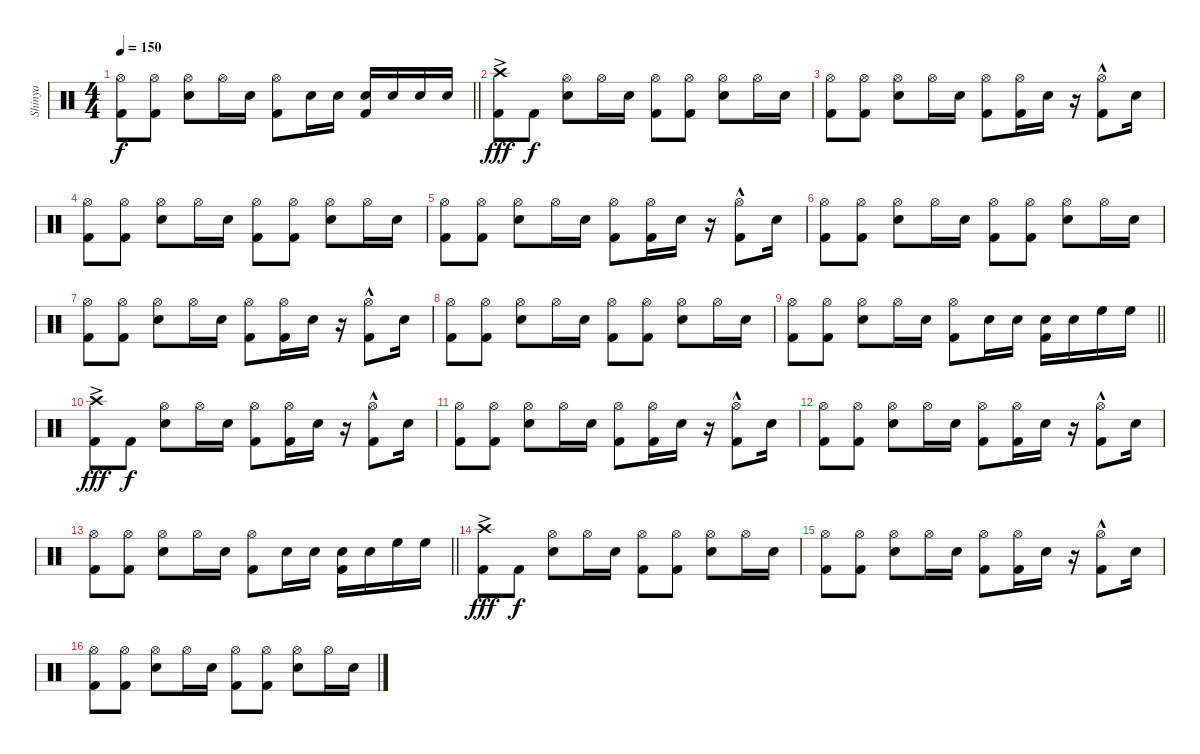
\track ("Shinya" "Shinya") {instrument percussion}
\staff {score}
\articulation defaults
\ts (4 4)
\tempo 150
\clef neutral
\barLineRight lightlight
\ks c
("Hi-Hat (open)" "Kick (hit) 2").8{dy f} ("Hi-Hat (open)" "Kick (hit) 2").8 ("Hi-Hat (open)" "Snare (hit) 2").8 "Hi-Hat (open)".16 "Snare (hit) 2".16 ("Hi-Hat (open)" "Kick (hit) 2").8 "Snare (hit) 2".16 "Snare (hit) 2".16 ("Snare (hit) 2" "Kick (hit) 2").16 "Snare (hit) 2".16 "Snare (hit) 2".16 "Snare (hit) 2".16 |
("Crash high (hit)"{ac} "Kick (hit) 2").8{dy fff} "Kick (hit) 2".8{dy f} ("Hi-Hat (open)" "Snare (hit) 2").8 "Hi-Hat (open)".16 "Snare (hit) 2".16 ("Hi-Hat (open)" "Kick (hit) 2").8 ("Hi-Hat (open)" "Kick (hit) 2").8 ("Hi-Hat (open)" "Snare (hit) 2").8 "Hi-Hat (open)".16 "Snare (hit) 2".16 |
("Hi-Hat (open)" "Kick (hit) 2").8 ("Hi-Hat (open)" "Kick (hit) 2").8 ("Hi-Hat (open)" "Snare (hit) 2").8 "Hi-Hat (open)".16 "Snare (hit) 2".16 ("Hi-Hat (open)" "Kick (hit) 2").8 ("Hi-Hat (open)" "Kick (hit) 2").16 "Snare (hit) 2".16 r.16 ("Hi-Hat (open)" "Kick (hit) 2"{hac}).8 "Snare (hit) 2".16 |
("Hi-Hat (open)" "Kick (hit) 2").8 ("Hi-Hat (open)" "Kick (hit) 2").8 ("Hi-Hat (open)" "Snare (hit) 2").8 "Hi-Hat (open)".16 "Snare (hit) 2".16 ("Hi-Hat (open)" "Kick (hit) 2").8 ("Hi-Hat (open)" "Kick (hit) 2").8 ("Hi-Hat (open)" "Snare (hit) 2").8 "Hi-Hat (open)".16 "Snare (hit) 2".16 |
("Hi-Hat (open)" "Kick (hit) 2").8 ("Hi-Hat (open)" "Kick (hit) 2").8 ("Hi-Hat (open)" "Snare (hit) 2").8 "Hi-Hat (open)".16 "Snare (hit) 2".16 ("Hi-Hat (open)" "Kick (hit) 2").8 ("Hi-Hat (open)" "Kick (hit) 2").16 "Snare (hit) 2".16 r.16 ("Hi-Hat (open)" "Kick (hit) 2"{hac}).8 "Snare (hit) 2".16 |
("Hi-Hat (open)" "Kick (hit) 2").8 ("Hi-Hat (open)" "Kick (hit) 2").8 ("Hi-Hat (open)" "Snare (hit) 2").8 "Hi-Hat (open)".16 "Snare (hit) 2".16 ("Hi-Hat (open)" "Kick (hit) 2").8 ("Hi-Hat (open)" "Kick (hit) 2").8 ("Hi-Hat (open)" "Snare (hit) 2").8 "Hi-Hat (open)".16 "Snare (hit) 2".16 |
("Hi-Hat (open)" "Kick (hit) 2").8 ("Hi-Hat (open)" "Kick (hit) 2").8 ("Hi-Hat (open)" "Snare (hit) 2").8 "Hi-Hat (open)".16 "Snare (hit) 2".16 ("Hi-Hat (open)" "Kick (hit) 2").8 ("Hi-Hat (open)" "Kick (hit) 2").16 "Snare (hit) 2".16 r.16 ("Hi-Hat (open)" "Kick (hit) 2"{hac}).8 "Snare (hit) 2".16 |
("Hi-Hat (open)" "Kick (hit) 2").8 ("Hi-Hat (open)" "Kick (hit) 2").8 ("Hi-Hat (open)" "Snare (hit) 2").8 "Hi-Hat (open)".16 "Snare (hit) 2".16 ("Hi-Hat (open)" "Kick (hit) 2").8 ("Hi-Hat (open)" "Kick (hit) 2").8 ("Hi-Hat (open)" "Snare (hit) 2").8 "Hi-Hat (open)".16 "Snare (hit) 2".16 |
\barLineRight lightlight
("Hi-Hat (open)" "Kick (hit) 2").8 ("Hi-Hat (open)" "Kick (hit) 2").8 ("Hi-Hat (open)" "Snare (hit) 2").8 "Hi-Hat (open)".16 "Snare (hit) 2".16 ("Hi-Hat (open)" "Kick (hit) 2").8 "Snare (hit) 2".16 "Snare (hit) 2".16 ("Snare (hit) 2" "Kick (hit) 2").16 "Snare (hit) 2".16 "High Floor Tom (hit)".16 "High Floor Tom (hit)".16 |
("Crash high (hit)"{ac} "Kick (hit) 2").8{dy fff} "Kick (hit) 2".8{dy f} ("Hi-Hat (open)" "Snare (hit) 2").8 "Hi-Hat (open)".16 "Snare (hit) 2".16 ("Hi-Hat (open)" "Kick (hit) 2").8 ("Hi-Hat (open)" "Kick (hit) 2").16 "Snare (hit) 2".16 r.16 ("Hi-Hat (open)" "Kick (hit) 2"{hac}).8 "Snare (hit) 2".16 |
("Hi-Hat (open)" "Kick (hit) 2").8 ("Hi-Hat (open)" "Kick (hit) 2").8 ("Hi-Hat (open)" "Snare (hit) 2").8 "Hi-Hat (open)".16 "Snare (hit) 2".16 ("Hi-Hat (open)" "Kick (hit) 2").8 ("Hi-Hat (open)" "Kick (hit) 2").16 "Snare (hit) 2".16 r.16 ("Hi-Hat (open)" "Kick (hit) 2"{hac}).8 "Snare (hit) 2".16 |
("Hi-Hat (open)" "Kick (hit) 2").8 ("Hi-Hat (open)" "Kick (hit) 2").8 ("Hi-Hat (open)" "Snare (hit) 2").8 "Hi-Hat (open)".16 "Snare (hit) 2".16 ("Hi-Hat (open)" "Kick (hit) 2").8 ("Hi-Hat (open)" "Kick (hit) 2").16 "Snare (hit) 2".16 r.16 ("Hi-Hat (open)" "Kick (hit) 2"{hac}).8 "Snare (hit) 2".16 |
\barLineRight lightlight
("Hi-Hat (open)" "Kick (hit) 2").8 ("Hi-Hat (open)" "Kick (hit) 2").8 ("Hi-Hat (open)" "Snare (hit) 2").8 "Hi-Hat (open)".16 "Snare (hit) 2".16 ("Hi-Hat (open)" "Kick (hit) 2").8 "Snare (hit) 2".16 "Snare (hit) 2".16 ("Snare (hit) 2" "Kick (hit) 2").16 "Snare (hit) 2".16 "High Floor Tom (hit)".16 "High Floor Tom (hit)".16 |
("Crash high (hit)"{ac} "Kick (hit) 2").8{dy fff} "Kick (hit) 2".8{dy f} ("Hi-Hat (open)" "Snare (hit) 2").8 "Hi-Hat (open)".16 "Snare (hit) 2".16 ("Hi-Hat (open)" "Kick (hit) 2").8 ("Hi-Hat (open)" "Kick (hit) 2").8 ("Hi-Hat (open)" "Snare (hit) 2").8 "Hi-Hat (open)".16 "Snare (hit) 2".16 |
("Hi-Hat (open)" "Kick (hit) 2").8 ("Hi-Hat (open)" "Kick (hit) 2").8 ("Hi-Hat (open)" "Snare (hit) 2").8 "Hi-Hat (open)".16 "Snare (hit) 2".16 ("Hi-Hat (open)" "Kick (hit) 2").8 ("Hi-Hat (open)" "Kick (hit) 2").16 "Snare (hit) 2".16 r.16 ("Hi-Hat (open)" "Kick (hit) 2"{hac}).8 "Snare (hit) 2".16 |
("Hi-Hat (open)" "Kick (hit) 2").8 ("Hi-Hat (open)" "Kick (hit) 2").8 ("Hi-Hat (open)" "Snare (hit) 2").8 "Hi-Hat (open)".16 "Snare (hit) 2".16 ("Hi-Hat (open)" "Kick (hit) 2").8 ("Hi-Hat (open)" "Kick (hit) 2").8 ("Hi-Hat (open)" "Snare (hit) 2").8 "Hi-Hat (open)".16 "Snare (hit) 2".16
